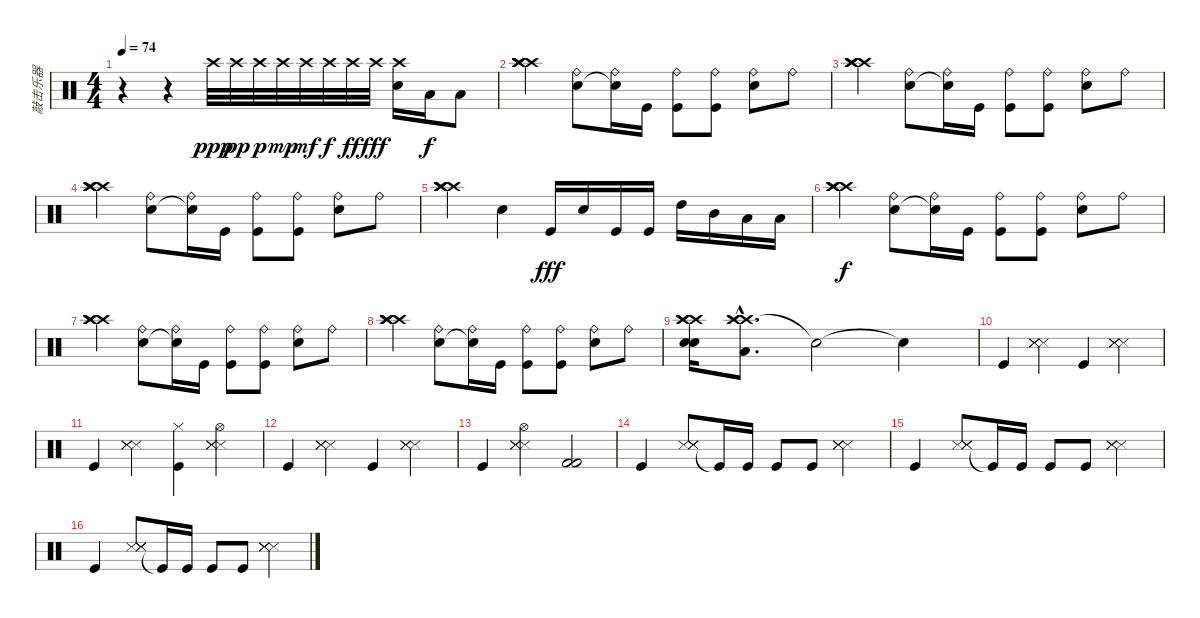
\track ("敲击乐器" "敲击乐器") {instrument percussion}
\staff {score}
\articulation defaults
\ts (4 4)
\tempo 74
\clef neutral
\ks c
r.4{dy ppp} r.4 "Crash high (hit)".32 "Crash high (hit)".32{dy pp} "Crash high (hit)".32{dy p} "Crash high (hit)".32{dy mp} "Crash high (hit)".32{dy mf} "Crash high (hit)".32{dy f} "Crash high (hit)".32{dy ff} "Crash high (hit)".32{dy fff} ("Crash high (hit)" "Snare (hit) 2").16 "Low Floor Tom (hit)".16{dy f} "Low Tom (hit)".8 |
("Crash high (hit)" "Crash high (hit)" "Crash high (hit)" "Crash high (hit)").4 ("Ride (bell)" "Snare (hit) 2").8 ("Ride (bell)" "Snare (hit)"{t}).16 "Kick (hit)".16 ("Ride (bell)" "Kick (hit)").8 ("Ride (bell)" "Kick (hit)").8 ("Ride (bell)" "Snare (hit) 2").8 "Ride (bell)".8 |
("Crash high (hit)" "Crash high (hit)" "Crash high (hit)" "Crash high (hit)").4 ("Ride (bell)" "Snare (hit) 2").8 ("Ride (bell)" "Snare (hit)"{t}).16 "Kick (hit)".16 ("Ride (bell)" "Kick (hit)").8 ("Ride (bell)" "Kick (hit)").8 ("Ride (bell)" "Snare (hit) 2").8 "Ride (bell)".8 |
("Crash high (hit)" "Crash high (hit)" "Crash high (hit)" "Crash high (hit)").4 ("Ride (bell)" "Snare (hit) 2").8 ("Ride (bell)" "Snare (hit)"{t}).16 "Kick (hit)".16 ("Ride (bell)" "Kick (hit)").8 ("Ride (bell)" "Kick (hit)").8 ("Ride (bell)" "Snare (hit) 2").8 "Ride (bell)".8 |
("Crash high (hit)" "Crash high (hit)" "Crash high (hit)" "Crash high (hit)").4 "Snare (hit) 2".4 "Kick (hit)".16{dy fff} "Snare (hit) 2".16 "Kick (hit)".16 "Kick (hit)".16 "High Tom (hit)".16 "Mid Tom (hit)".16 "Low Tom (hit)".16 "Low Tom (hit)".16 |
("Crash high (hit)" "Crash high (hit)" "Crash high (hit)" "Crash high (hit)").4{dy f} ("Ride (bell)" "Snare (hit) 2").8 ("Ride (bell)" "Snare (hit)"{t}).16 "Kick (hit)".16 ("Ride (bell)" "Kick (hit)").8 ("Ride (bell)" "Kick (hit)").8 ("Ride (bell)" "Snare (hit) 2").8 "Ride (bell)".8 |
("Crash high (hit)" "Crash high (hit)" "Crash high (hit)" "Crash high (hit)").4 ("Ride (bell)" "Snare (hit) 2").8 ("Ride (bell)" "Snare (hit)"{t}).16 "Kick (hit)".16 ("Ride (bell)" "Kick (hit)").8 ("Ride (bell)" "Kick (hit)").8 ("Ride (bell)" "Snare (hit) 2").8 "Ride (bell)".8 |
("Crash high (hit)" "Crash high (hit)" "Crash high (hit)" "Crash high (hit)").4 ("Ride (bell)" "Snare (hit) 2").8 ("Ride (bell)" "Snare (hit)"{t}).16 "Kick (hit)".16 ("Ride (bell)" "Kick (hit)").8 ("Ride (bell)" "Kick (hit)").8 ("Ride (bell)" "Snare (hit) 2").8 "Ride (bell)".8 |
("Crash high (hit)" "Crash high (hit)" "Crash high (hit)" "Snare (hit) 2" "Snare (hit) 2").16 ("Crash high (hit)"{hac} "Crash high (hit)"{hac} "Crash high (hit)"{hac} "Low Tom (hit)"{hac}).8{d} "Snare (hit)"{t}.2 "Snare (hit)"{t}.4 |
"Kick (hit)".4 ("Snare (side stick) 3" "Snare (side stick) 3" "Snare (side stick) 3" "Snare (side stick) 3").4 "Kick (hit)".4 ("Snare (side stick) 3" "Snare (side stick) 3" "Snare (side stick) 3" "Snare (side stick) 3").4 |
"Kick (hit)".4 ("Snare (side stick) 3" "Snare (side stick) 3" "Snare (side stick) 3" "Snare (side stick) 3").4 ("Kick (hit)" "Hi-Hat (closed)").4 ("Snare (side stick) 3" "Snare (side stick) 3" "Snare (side stick) 3" "Snare (side stick) 3" "Hi-Hat (open)").4 |
"Kick (hit)".4 ("Snare (side stick) 3" "Snare (side stick) 3" "Snare (side stick) 3" "Snare (side stick) 3").4 "Kick (hit)".4 ("Snare (side stick) 3" "Snare (side stick) 3" "Snare (side stick) 3" "Snare (side stick) 3").4 |
"Kick (hit)".4 ("Snare (side stick) 3" "Snare (side stick) 3" "Snare (side stick) 3" "Snare (side stick) 3" "Hi-Hat (open)").4 ("Kick (hit) 2" "Kick (hit) 2").2 |
"Kick (hit)".4 ("Snare (side stick) 3" "Snare (side stick) 3" "Snare (side stick) 3" "Snare (side stick) 3").8 "Kick (hit)"{t}.16 "Kick (hit)".16 "Kick (hit)".8 "Kick (hit)".8 ("Snare (side stick) 3" "Snare (side stick) 3" "Snare (side stick) 3" "Snare (side stick) 3").4 |
"Kick (hit)".4 ("Snare (side stick) 3" "Snare (side stick) 3" "Snare (side stick) 3" "Snare (side stick) 3").8 "Kick (hit)"{t}.16 "Kick (hit)".16 "Kick (hit)".8 "Kick (hit)".8 ("Snare (side stick) 3" "Snare (side stick) 3" "Snare (side stick) 3" "Snare (side stick) 3").4 |
"Kick (hit)".4 ("Snare (side stick) 3" "Snare (side stick) 3" "Snare (side stick) 3" "Snare (side stick) 3").8 "Kick (hit)"{t}.16 "Kick (hit)".16 "Kick (hit)".8 "Kick (hit)".8 ("Snare (side stick) 3" "Snare (side stick) 3" "Snare (side stick) 3" "Snare (side stick) 3").4
